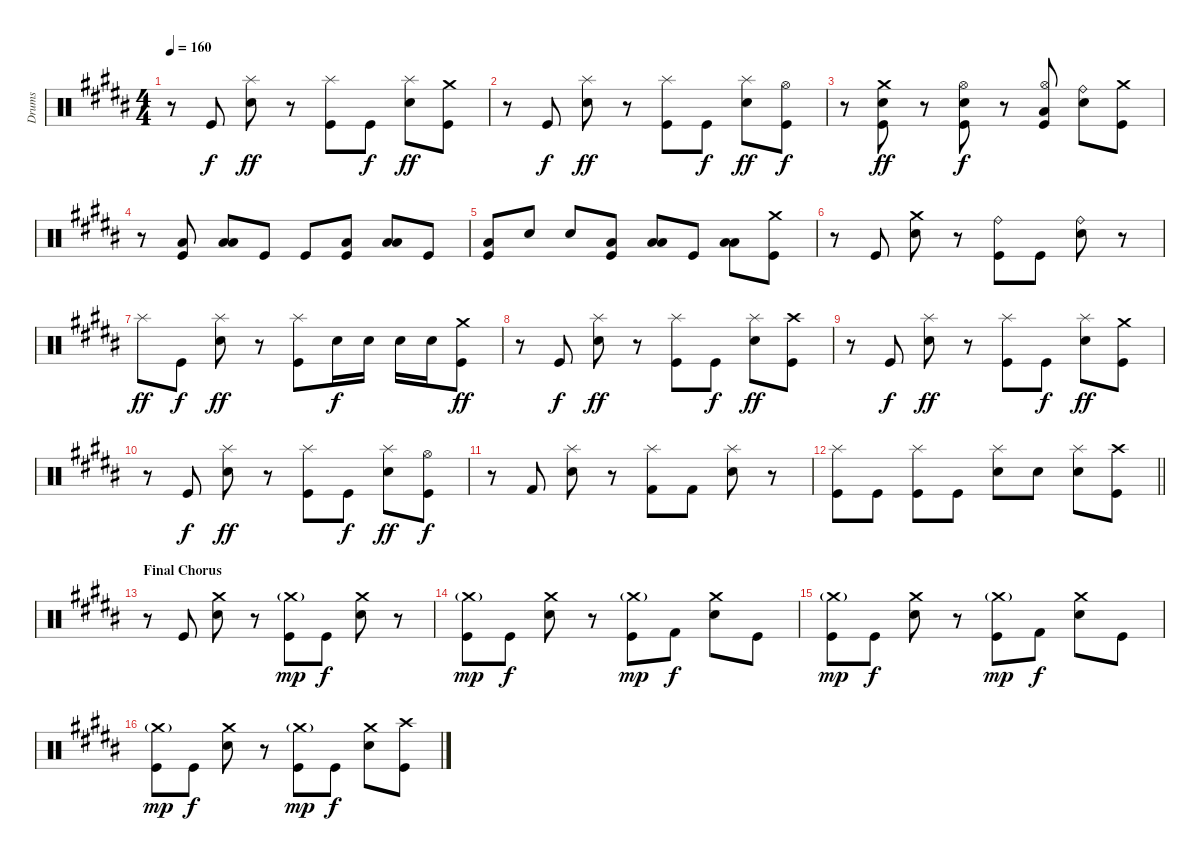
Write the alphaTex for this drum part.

\track ("Drums" "Drums") {instrument percussion}
\staff {score}
\articulation defaults
\ts (4 4)
\tempo 160
\clef neutral
\ks b
r.8{dy f} "Kick (hit)".8 ("Splash (hit)" "Snare (hit) 2").8{dy ff} r.8 ("Splash (hit)" "Kick (hit)").8 "Kick (hit)".8{dy f} ("Splash (hit)" "Snare (hit) 2").8{dy ff} ("Crash medium (hit)" "Kick (hit)").8 |
r.8 "Kick (hit)".8{dy f} ("Splash (hit)" "Snare (hit) 2").8{dy ff} r.8 ("Splash (hit)" "Kick (hit)").8 "Kick (hit)".8{dy f} ("Splash (hit)" "Snare (hit) 2").8{dy ff} ("Hi-Hat (open)" "Kick (hit)").8{dy f} |
r.8 ("Crash medium (hit)" "Snare (hit) 2" "Kick (hit)").8{dy ff} r.8 ("Hi-Hat (open)" "Snare (hit) 2" "Kick (hit)").8{dy f} r.8 ("Hi-Hat (open)" "Low Tom (hit)" "Kick (hit)").8 ("Ride (bell)" "Snare (hit) 2").8 ("Crash medium (hit)" "Kick (hit)").8 |
r.8 ("Low Floor Tom (hit)" "Kick (hit)").8 ("Low Tom (hit)" "Low Floor Tom (hit)").8 "Kick (hit)".8 "Kick (hit)".8 ("Low Floor Tom (hit)" "Kick (hit)").8 ("Low Tom (hit)" "Low Floor Tom (hit)").8 "Kick (hit)".8 |
("Low Tom (hit)" "Kick (hit)").8 "Snare (hit) 2".8 "Snare (hit) 2".8 ("Low Tom (hit)" "Kick (hit)").8 ("Low Tom (hit)" "Low Floor Tom (hit)").8 "Kick (hit)".8 ("Low Tom (hit)" "Low Floor Tom (hit)").8 ("Crash medium (hit)" "Kick (hit)").8 |
r.8 "Kick (hit)".8 ("Crash medium (hit)" "Snare (hit) 2").8 r.8 ("Ride (bell)" "Kick (hit)").8 "Kick (hit)".8 ("Ride (bell)" "Snare (hit) 2").8 r.8 |
"Splash (hit)".8{dy ff} "Kick (hit)".8{dy f} ("Splash (hit)" "Snare (hit) 2").8{dy ff} r.8 ("Splash (hit)" "Kick (hit)").8 "Snare (hit) 2".16{dy f} "Snare (hit) 2".16 "Snare (hit) 2".16 "Snare (hit) 2".16 ("Crash medium (hit)" "Kick (hit)").8{dy ff} |
r.8 "Kick (hit)".8{dy f} ("Splash (hit)" "Snare (hit) 2").8{dy ff} r.8 ("Splash (hit)" "Kick (hit)").8 "Kick (hit)".8{dy f} ("Splash (hit)" "Snare (hit) 2").8{dy ff} ("Crash high (hit)" "Kick (hit)").8 |
r.8 "Kick (hit)".8{dy f} ("Splash (hit)" "Snare (hit) 2").8{dy ff} r.8 ("Splash (hit)" "Kick (hit)").8 "Kick (hit)".8{dy f} ("Splash (hit)" "Snare (hit) 2").8{dy ff} ("Crash medium (hit)" "Kick (hit)").8 |
r.8 "Kick (hit)".8{dy f} ("Splash (hit)" "Snare (hit) 2").8{dy ff} r.8 ("Splash (hit)" "Kick (hit)").8 "Kick (hit)".8{dy f} ("Splash (hit)" "Snare (hit) 2").8{dy ff} ("Hi-Hat (open)" "Kick (hit)").8{dy f} |
r.8 "Kick (hit) 2".8 ("Splash (hit)" "Snare (hit) 2").8 r.8 ("Splash (hit)" "Kick (hit) 2").8 "Kick (hit) 2".8 ("Splash (hit)" "Snare (hit) 2").8 r.8 |
\barLineRight lightlight
("Splash (hit)" "Kick (hit)").8 "Kick (hit)".8 ("Splash (hit)" "Kick (hit)").8 "Kick (hit)".8 ("Splash (hit)" "Snare (hit) 2").8 "Snare (hit) 2".8 ("Splash (hit)" "Snare (hit) 2").8 ("Crash high (hit)" "Kick (hit)").8 |
\section ("" "Final Chorus")
r.8 "Kick (hit)".8 ("Crash medium (hit)" "Snare (hit) 2").8 r.8 ("Crash medium (hit)"{g} "Kick (hit)").8{dy mp} "Kick (hit)".8{dy f} ("Crash medium (hit)" "Snare (hit) 2").8 r.8 |
("Crash medium (hit)"{g} "Kick (hit)").8{dy mp} "Kick (hit)".8{dy f} ("Crash medium (hit)" "Snare (hit) 2").8 r.8 ("Crash medium (hit)"{g} "Kick (hit)").8{dy mp} "Kick (hit) 2".8{dy f} ("Crash medium (hit)" "Snare (hit) 2").8 "Kick (hit)".8 |
("Crash medium (hit)"{g} "Kick (hit)").8{dy mp} "Kick (hit)".8{dy f} ("Crash medium (hit)" "Snare (hit) 2").8 r.8 ("Crash medium (hit)"{g} "Kick (hit)").8{dy mp} "Kick (hit) 2".8{dy f} ("Crash medium (hit)" "Snare (hit) 2").8 "Kick (hit)".8 |
("Crash medium (hit)"{g} "Kick (hit)").8{dy mp} "Kick (hit)".8{dy f} ("Crash medium (hit)" "Snare (hit) 2").8 r.8 ("Crash medium (hit)"{g} "Kick (hit)").8{dy mp} "Kick (hit)".8{dy f} ("Crash medium (hit)" "Snare (hit) 2").8 ("Crash high (hit)" "Kick (hit)").8
